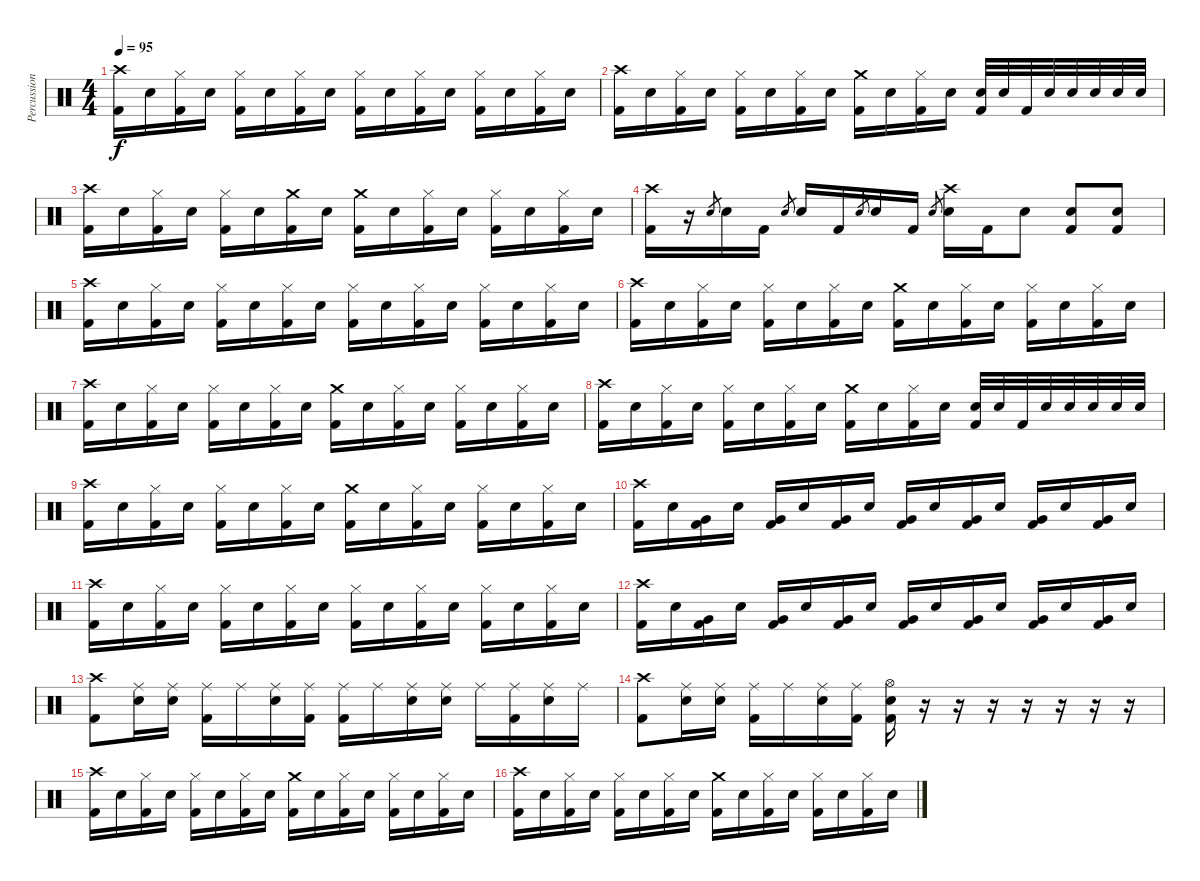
\track ("Percussions" "Percussion") {instrument percussion}
\staff {score}
\articulation defaults
\ts (4 4)
\tempo 95
\clef neutral
\ks c
("Crash high (hit)" "Kick (hit) 2").16{dy f} "Electric Snare (hit)".16 ("Hi-Hat (closed)" "Kick (hit) 2").16 "Electric Snare (hit)".16 ("Hi-Hat (closed)" "Kick (hit) 2").16 "Electric Snare (hit)".16 ("Hi-Hat (closed)" "Kick (hit) 2").16 "Electric Snare (hit)".16 ("Hi-Hat (closed)" "Kick (hit) 2").16 "Electric Snare (hit)".16 ("Hi-Hat (closed)" "Kick (hit) 2").16 "Electric Snare (hit)".16 ("Hi-Hat (closed)" "Kick (hit) 2").16 "Electric Snare (hit)".16 ("Hi-Hat (closed)" "Kick (hit) 2").16 "Electric Snare (hit)".16 |
("Crash high (hit)" "Kick (hit) 2").16 "Electric Snare (hit)".16 ("Hi-Hat (closed)" "Kick (hit) 2").16 "Electric Snare (hit)".16 ("Hi-Hat (closed)" "Kick (hit) 2").16 "Electric Snare (hit)".16 ("Hi-Hat (closed)" "Kick (hit) 2").16 "Electric Snare (hit)".16 ("Crash medium (hit)" "Kick (hit) 2").16 "Electric Snare (hit)".16 ("Hi-Hat (closed)" "Kick (hit) 2").16 "Electric Snare (hit)".16 ("Electric Snare (hit)" "Kick (hit) 2").32 "Electric Snare (hit)".32 "Kick (hit) 2".32 "Electric Snare (hit)".32 "Electric Snare (hit)".32 "Electric Snare (hit)".32 "Electric Snare (hit)".32 "Electric Snare (hit)".32 |
("Crash high (hit)" "Kick (hit) 2").16 "Electric Snare (hit)".16 ("Hi-Hat (closed)" "Kick (hit) 2").16 "Electric Snare (hit)".16 ("Hi-Hat (closed)" "Kick (hit) 2").16 "Electric Snare (hit)".16 ("Crash medium (hit)" "Kick (hit) 2").16 "Electric Snare (hit)".16 ("Crash medium (hit)" "Kick (hit) 2").16 "Electric Snare (hit)".16 ("Hi-Hat (closed)" "Kick (hit) 2").16 "Electric Snare (hit)".16 ("Hi-Hat (closed)" "Kick (hit) 2").16 "Electric Snare (hit)".16 ("Hi-Hat (closed)" "Kick (hit) 2").16 "Electric Snare (hit)".16 |
("Crash high (hit)" "Kick (hit) 2").16 r.16 "Electric Snare (hit)".8{gr} "Electric Snare (hit)".16 "Kick (hit) 2".16 "Electric Snare (hit)".8{gr} "Electric Snare (hit)".16 "Kick (hit) 2".16 "Electric Snare (hit)".8{gr} "Electric Snare (hit)".16 "Kick (hit) 2".16 "Electric Snare (hit)".8{gr} ("Crash high (hit)" "Electric Snare (hit)").16 "Kick (hit) 2".16 "Electric Snare (hit)".8 ("Electric Snare (hit)" "Kick (hit) 2").8 ("Electric Snare (hit)" "Kick (hit) 2").8 |
("Crash high (hit)" "Kick (hit) 2").16 "Electric Snare (hit)".16 ("Hi-Hat (closed)" "Kick (hit) 2").16 "Electric Snare (hit)".16 ("Hi-Hat (closed)" "Kick (hit) 2").16 "Electric Snare (hit)".16 ("Hi-Hat (closed)" "Kick (hit) 2").16 "Electric Snare (hit)".16 ("Hi-Hat (closed)" "Kick (hit) 2").16 "Electric Snare (hit)".16 ("Hi-Hat (closed)" "Kick (hit) 2").16 "Electric Snare (hit)".16 ("Hi-Hat (closed)" "Kick (hit) 2").16 "Electric Snare (hit)".16 ("Hi-Hat (closed)" "Kick (hit) 2").16 "Electric Snare (hit)".16 |
("Crash high (hit)" "Kick (hit) 2").16 "Electric Snare (hit)".16 ("Hi-Hat (closed)" "Kick (hit) 2").16 "Electric Snare (hit)".16 ("Hi-Hat (closed)" "Kick (hit) 2").16 "Electric Snare (hit)".16 ("Hi-Hat (closed)" "Kick (hit) 2").16 "Electric Snare (hit)".16 ("Crash medium (hit)" "Kick (hit) 2").16 "Electric Snare (hit)".16 ("Hi-Hat (closed)" "Kick (hit) 2").16 "Electric Snare (hit)".16 ("Hi-Hat (closed)" "Kick (hit) 2").16 "Electric Snare (hit)".16 ("Hi-Hat (closed)" "Kick (hit) 2").16 "Electric Snare (hit)".16 |
("Crash high (hit)" "Kick (hit) 2").16 "Electric Snare (hit)".16 ("Hi-Hat (closed)" "Kick (hit) 2").16 "Electric Snare (hit)".16 ("Hi-Hat (closed)" "Kick (hit) 2").16 "Electric Snare (hit)".16 ("Hi-Hat (closed)" "Kick (hit) 2").16 "Electric Snare (hit)".16 ("Crash medium (hit)" "Kick (hit) 2").16 "Electric Snare (hit)".16 ("Hi-Hat (closed)" "Kick (hit) 2").16 "Electric Snare (hit)".16 ("Hi-Hat (closed)" "Kick (hit) 2").16 "Electric Snare (hit)".16 ("Hi-Hat (closed)" "Kick (hit) 2").16 "Electric Snare (hit)".16 |
("Crash high (hit)" "Kick (hit) 2").16 "Electric Snare (hit)".16 ("Hi-Hat (closed)" "Kick (hit) 2").16 "Electric Snare (hit)".16 ("Hi-Hat (closed)" "Kick (hit) 2").16 "Electric Snare (hit)".16 ("Hi-Hat (closed)" "Kick (hit) 2").16 "Electric Snare (hit)".16 ("Crash medium (hit)" "Kick (hit) 2").16 "Electric Snare (hit)".16 ("Hi-Hat (closed)" "Kick (hit) 2").16 "Electric Snare (hit)".16 ("Electric Snare (hit)" "Kick (hit) 2").32 "Electric Snare (hit)".32 "Kick (hit) 2".32 "Electric Snare (hit)".32 "Electric Snare (hit)".32 "Electric Snare (hit)".32 "Electric Snare (hit)".32 "Electric Snare (hit)".32 |
("Crash high (hit)" "Kick (hit) 2").16 "Electric Snare (hit)".16 ("Hi-Hat (closed)" "Kick (hit) 2").16 "Electric Snare (hit)".16 ("Hi-Hat (closed)" "Kick (hit) 2").16 "Electric Snare (hit)".16 ("Hi-Hat (closed)" "Kick (hit) 2").16 "Electric Snare (hit)".16 ("Crash medium (hit)" "Kick (hit) 2").16 "Electric Snare (hit)".16 ("Hi-Hat (closed)" "Kick (hit) 2").16 "Electric Snare (hit)".16 ("Hi-Hat (closed)" "Kick (hit) 2").16 "Electric Snare (hit)".16 ("Hi-Hat (closed)" "Kick (hit) 2").16 "Electric Snare (hit)".16 |
("Crash high (hit)" "Kick (hit) 2").16 "Electric Snare (hit)".16 ("Very Low Tom (hit)" "Kick (hit) 2").16 "Electric Snare (hit)".16 ("Very Low Tom (hit)" "Kick (hit) 2").16 "Electric Snare (hit)".16 ("Very Low Tom (hit)" "Kick (hit) 2").16 "Electric Snare (hit)".16 ("Very Low Tom (hit)" "Kick (hit) 2").16 "Electric Snare (hit)".16 ("Very Low Tom (hit)" "Kick (hit) 2").16 "Electric Snare (hit)".16 ("Very Low Tom (hit)" "Kick (hit) 2").16 "Electric Snare (hit)".16 ("Very Low Tom (hit)" "Kick (hit) 2").16 "Electric Snare (hit)".16 |
("Crash high (hit)" "Kick (hit) 2").16 "Electric Snare (hit)".16 ("Hi-Hat (closed)" "Kick (hit) 2").16 "Electric Snare (hit)".16 ("Hi-Hat (closed)" "Kick (hit) 2").16 "Electric Snare (hit)".16 ("Hi-Hat (closed)" "Kick (hit) 2").16 "Electric Snare (hit)".16 ("Hi-Hat (closed)" "Kick (hit) 2").16 "Electric Snare (hit)".16 ("Hi-Hat (closed)" "Kick (hit) 2").16 "Electric Snare (hit)".16 ("Hi-Hat (closed)" "Kick (hit) 2").16 "Electric Snare (hit)".16 ("Hi-Hat (closed)" "Kick (hit) 2").16 "Electric Snare (hit)".16 |
("Crash high (hit)" "Kick (hit) 2").16 "Electric Snare (hit)".16 ("Very Low Tom (hit)" "Kick (hit) 2").16 "Electric Snare (hit)".16 ("Very Low Tom (hit)" "Kick (hit) 2").16 "Electric Snare (hit)".16 ("Very Low Tom (hit)" "Kick (hit) 2").16 "Electric Snare (hit)".16 ("Very Low Tom (hit)" "Kick (hit) 2").16 "Electric Snare (hit)".16 ("Very Low Tom (hit)" "Kick (hit) 2").16 "Electric Snare (hit)".16 ("Very Low Tom (hit)" "Kick (hit) 2").16 "Electric Snare (hit)".16 ("Very Low Tom (hit)" "Kick (hit) 2").16 "Electric Snare (hit)".16 |
("Crash high (hit)" "Kick (hit) 2").8 ("Ride (middle)" "Electric Snare (hit)").16 ("Ride (middle)" "Electric Snare (hit)").16 ("Ride (middle)" "Kick (hit) 2").16 "Ride (middle)".16 ("Ride (middle)" "Electric Snare (hit)").16 ("Ride (middle)" "Kick (hit) 2").16 ("Ride (middle)" "Kick (hit) 2").16 "Ride (middle)".16 ("Ride (middle)" "Electric Snare (hit)").16 ("Ride (middle)" "Electric Snare (hit)").16 "Ride (middle)".16 ("Ride (middle)" "Kick (hit) 2").16 ("Ride (middle)" "Electric Snare (hit)").16 "Ride (middle)".16 |
("Crash high (hit)" "Kick (hit) 2").8 ("Ride (middle)" "Electric Snare (hit)").16 ("Ride (middle)" "Electric Snare (hit)").16 ("Ride (middle)" "Kick (hit) 2").16 "Ride (middle)".16 ("Ride (middle)" "Electric Snare (hit)").16 ("Ride (middle)" "Kick (hit) 2").16 ("Hi-Hat (open)" "Electric Snare (hit)" "Kick (hit) 2").16 r.16 r.16 r.16 r.16 r.16 r.16 r.16 |
("Crash high (hit)" "Kick (hit) 2").16 "Electric Snare (hit)".16 ("Hi-Hat (closed)" "Kick (hit) 2").16 "Electric Snare (hit)".16 ("Hi-Hat (closed)" "Kick (hit) 2").16 "Electric Snare (hit)".16 ("Hi-Hat (closed)" "Kick (hit) 2").16 "Electric Snare (hit)".16 ("Crash medium (hit)" "Kick (hit) 2").16 "Electric Snare (hit)".16 ("Hi-Hat (closed)" "Kick (hit) 2").16 "Electric Snare (hit)".16 ("Hi-Hat (closed)" "Kick (hit) 2").16 "Electric Snare (hit)".16 ("Hi-Hat (closed)" "Kick (hit) 2").16 "Electric Snare (hit)".16 |
("Crash high (hit)" "Kick (hit) 2").16 "Electric Snare (hit)".16 ("Hi-Hat (closed)" "Kick (hit) 2").16 "Electric Snare (hit)".16 ("Hi-Hat (closed)" "Kick (hit) 2").16 "Electric Snare (hit)".16 ("Hi-Hat (closed)" "Kick (hit) 2").16 "Electric Snare (hit)"{x}.16 ("Crash medium (hit)" "Kick (hit) 2").16 "Electric Snare (hit)"{x}.16 ("Hi-Hat (closed)" "Kick (hit) 2").16 "Electric Snare (hit)".16 ("Hi-Hat (closed)" "Kick (hit) 2").16 "Electric Snare (hit)".16 ("Hi-Hat (closed)" "Kick (hit) 2").16 "Electric Snare (hit)".16
